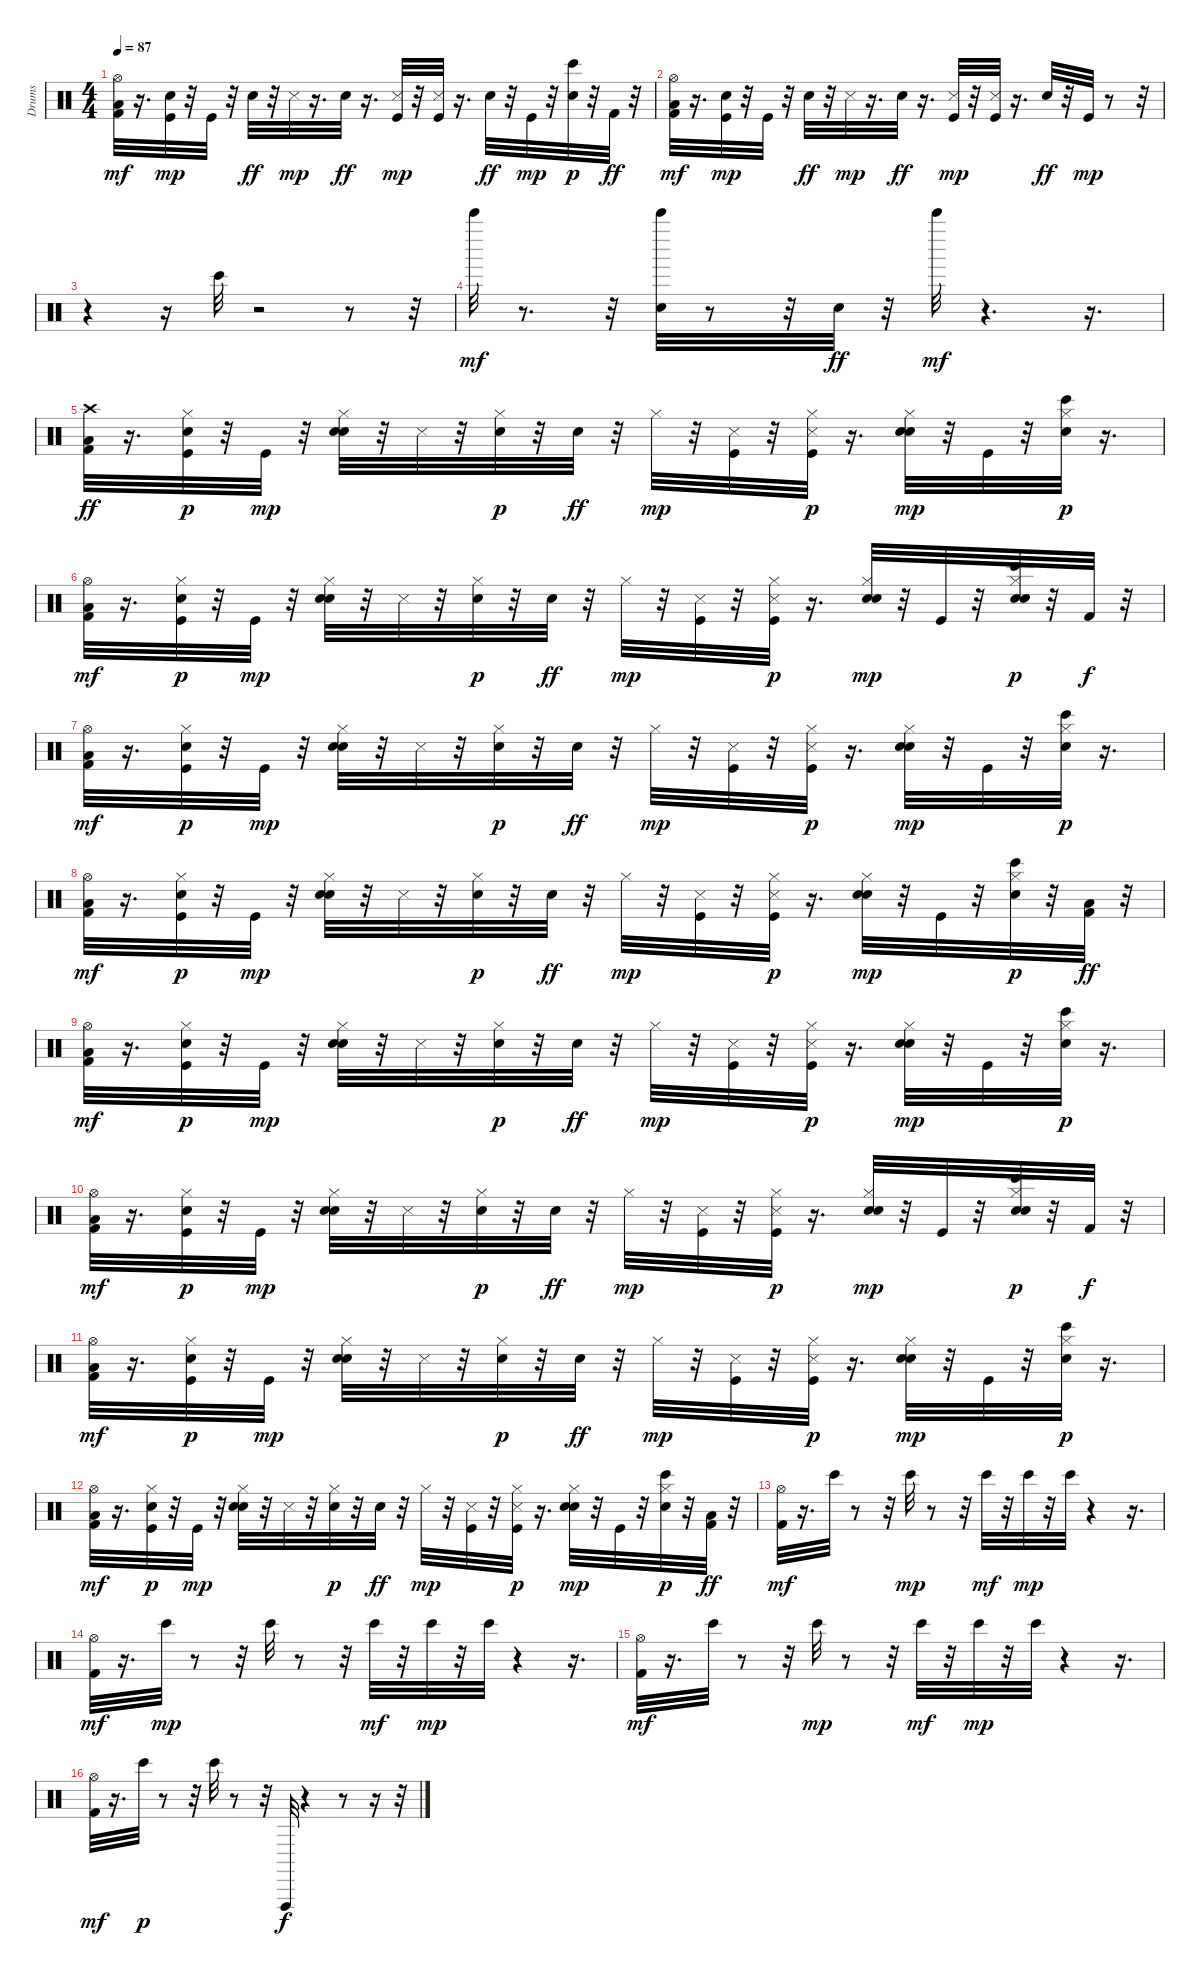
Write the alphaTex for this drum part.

\track ("Drums     " "Drums     ") {instrument percussion}
\staff {score}
\articulation defaults
\ts (4 4)
\tempo 87
\clef neutral
\ks c
("Kick (hit) 2" "Low Floor Tom (hit)" "Hi-Hat (open)").32{dy mf} r.16{d} ("Kick (hit)" "Snare (hit) 2").32{dy mp} r.32 "Kick (hit)".32 r.32 "Hand Clap (hit)".32{dy ff} r.32 "Snare (side stick) 3".32{dy mp} r.16{d} "Hand Clap (hit)".32{dy ff} r.16{d} ("Kick (hit)" "Snare (side stick) 3").32{dy mp} r.32 ("Kick (hit)" "Snare (side stick) 3").32 r.16{d} "Hand Clap (hit)".32{dy ff} r.32 "Kick (hit)".32{dy mp} r.32 ("Snare (hit) 2" "Bongo High (hit)").32{dy p} r.32 "Kick (hit) 2".32{dy ff} r.32 |
("Kick (hit) 2" "Low Floor Tom (hit)" "Hi-Hat (open)").32{dy mf} r.16{d} ("Kick (hit)" "Snare (hit) 2").32{dy mp} r.32 "Kick (hit)".32 r.32 "Hand Clap (hit)".32{dy ff} r.32 "Snare (side stick) 3".32{dy mp} r.16{d} "Hand Clap (hit)".32{dy ff} r.16{d} ("Kick (hit)" "Snare (side stick) 3").32{dy mp} r.32 ("Kick (hit)" "Snare (side stick) 3").32 r.16{d} "Hand Clap (hit)".32{dy ff} r.32 "Kick (hit)".32{dy mp} r.8 r.32 |
r.4 r.16 "Bongo High (hit)".32 r.2 r.8 r.32 |
"Bell Tree (hit)".32{dy mf} r.8{d} r.32 ("Hand Clap (hit)" "Bell Tree (hit)").32 r.8 r.32 "Hand Clap (hit)".32{dy ff} r.32 "Bell Tree (hit)".32{dy mf} r.4{d} r.16{d} |
("Kick (hit) 2" "Low Floor Tom (hit)" "Crash high (hit)").32{dy ff} r.16{d} ("Kick (hit)" "Snare (hit) 2" "Hi-Hat (closed)").32{dy p} r.32 "Kick (hit)".32{dy mp} r.32 ("Electric Snare (hit)" "Hand Clap (hit)" "Hi-Hat (closed)").32 r.32 "Snare (side stick) 3".32 r.32 ("Electric Snare (hit)" "Hi-Hat (closed)").32{dy p} r.32 "Hand Clap (hit)".32{dy ff} r.32 "Hi-Hat (closed)".32{dy mp} r.32 ("Kick (hit)" "Snare (side stick) 3").32 r.32 ("Kick (hit)" "Snare (side stick) 3" "Hi-Hat (closed)").32{dy p} r.16{d} ("Electric Snare (hit)" "Hand Clap (hit)" "Hi-Hat (closed)").32{dy mp} r.32 "Kick (hit)".32 r.32 ("Electric Snare (hit)" "Hi-Hat (closed)" "Bongo High (hit)").32{dy p} r.16{d} |
("Kick (hit) 2" "Low Floor Tom (hit)" "Hi-Hat (open)").32{dy mf} r.16{d} ("Kick (hit)" "Snare (hit) 2" "Hi-Hat (closed)").32{dy p} r.32 "Kick (hit)".32{dy mp} r.32 ("Electric Snare (hit)" "Hand Clap (hit)" "Hi-Hat (closed)").32 r.32 "Snare (side stick) 3".32 r.32 ("Electric Snare (hit)" "Hi-Hat (closed)").32{dy p} r.32 "Hand Clap (hit)".32{dy ff} r.32 "Hi-Hat (closed)".32{dy mp} r.32 ("Kick (hit)" "Snare (side stick) 3").32 r.32 ("Kick (hit)" "Snare (side stick) 3" "Hi-Hat (closed)").32{dy p} r.16{d} ("Electric Snare (hit)" "Hand Clap (hit)" "Hi-Hat (closed)").32{dy mp} r.32 "Kick (hit)".32 r.32 ("Snare (hit) 2" "Electric Snare (hit)" "Hi-Hat (closed)" "Bongo High (hit)").32{dy p} r.32 "Kick (hit) 2".32{dy f} r.32 |
("Kick (hit) 2" "Low Floor Tom (hit)" "Hi-Hat (open)").32{dy mf} r.16{d} ("Kick (hit)" "Snare (hit) 2" "Hi-Hat (closed)").32{dy p} r.32 "Kick (hit)".32{dy mp} r.32 ("Electric Snare (hit)" "Hand Clap (hit)" "Hi-Hat (closed)").32 r.32 "Snare (side stick) 3".32 r.32 ("Electric Snare (hit)" "Hi-Hat (closed)").32{dy p} r.32 "Hand Clap (hit)".32{dy ff} r.32 "Hi-Hat (closed)".32{dy mp} r.32 ("Kick (hit)" "Snare (side stick) 3").32 r.32 ("Kick (hit)" "Snare (side stick) 3" "Hi-Hat (closed)").32{dy p} r.16{d} ("Electric Snare (hit)" "Hand Clap (hit)" "Hi-Hat (closed)").32{dy mp} r.32 "Kick (hit)".32 r.32 ("Electric Snare (hit)" "Hi-Hat (closed)" "Bongo High (hit)").32{dy p} r.16{d} |
("Kick (hit) 2" "Low Floor Tom (hit)" "Hi-Hat (open)").32{dy mf} r.16{d} ("Kick (hit)" "Snare (hit) 2" "Hi-Hat (closed)").32{dy p} r.32 "Kick (hit)".32{dy mp} r.32 ("Electric Snare (hit)" "Hand Clap (hit)" "Hi-Hat (closed)").32 r.32 "Snare (side stick) 3".32 r.32 ("Electric Snare (hit)" "Hi-Hat (closed)").32{dy p} r.32 "Hand Clap (hit)".32{dy ff} r.32 "Hi-Hat (closed)".32{dy mp} r.32 ("Kick (hit)" "Snare (side stick) 3").32 r.32 ("Kick (hit)" "Snare (side stick) 3" "Hi-Hat (closed)").32{dy p} r.16{d} ("Electric Snare (hit)" "Hand Clap (hit)" "Hi-Hat (closed)").32{dy mp} r.32 "Kick (hit)".32 r.32 ("Electric Snare (hit)" "Hi-Hat (closed)" "Bongo High (hit)").32{dy p} r.32 ("Kick (hit) 2" "Low Floor Tom (hit)").32{dy ff} r.32 |
("Kick (hit) 2" "Low Floor Tom (hit)" "Hi-Hat (open)").32{dy mf} r.16{d} ("Kick (hit)" "Snare (hit) 2" "Hi-Hat (closed)").32{dy p} r.32 "Kick (hit)".32{dy mp} r.32 ("Electric Snare (hit)" "Hand Clap (hit)" "Hi-Hat (closed)").32 r.32 "Snare (side stick) 3".32 r.32 ("Electric Snare (hit)" "Hi-Hat (closed)").32{dy p} r.32 "Hand Clap (hit)".32{dy ff} r.32 "Hi-Hat (closed)".32{dy mp} r.32 ("Kick (hit)" "Snare (side stick) 3").32 r.32 ("Kick (hit)" "Snare (side stick) 3" "Hi-Hat (closed)").32{dy p} r.16{d} ("Electric Snare (hit)" "Hand Clap (hit)" "Hi-Hat (closed)").32{dy mp} r.32 "Kick (hit)".32 r.32 ("Electric Snare (hit)" "Hi-Hat (closed)" "Bongo High (hit)").32{dy p} r.16{d} |
("Kick (hit) 2" "Low Floor Tom (hit)" "Hi-Hat (open)").32{dy mf} r.16{d} ("Kick (hit)" "Snare (hit) 2" "Hi-Hat (closed)").32{dy p} r.32 "Kick (hit)".32{dy mp} r.32 ("Electric Snare (hit)" "Hand Clap (hit)" "Hi-Hat (closed)").32 r.32 "Snare (side stick) 3".32 r.32 ("Electric Snare (hit)" "Hi-Hat (closed)").32{dy p} r.32 "Hand Clap (hit)".32{dy ff} r.32 "Hi-Hat (closed)".32{dy mp} r.32 ("Kick (hit)" "Snare (side stick) 3").32 r.32 ("Kick (hit)" "Snare (side stick) 3" "Hi-Hat (closed)").32{dy p} r.16{d} ("Electric Snare (hit)" "Hand Clap (hit)" "Hi-Hat (closed)").32{dy mp} r.32 "Kick (hit)".32 r.32 ("Snare (hit) 2" "Electric Snare (hit)" "Hi-Hat (closed)" "Bongo High (hit)").32{dy p} r.32 "Kick (hit) 2".32{dy f} r.32 |
("Kick (hit) 2" "Low Floor Tom (hit)" "Hi-Hat (open)").32{dy mf} r.16{d} ("Kick (hit)" "Snare (hit) 2" "Hi-Hat (closed)").32{dy p} r.32 "Kick (hit)".32{dy mp} r.32 ("Electric Snare (hit)" "Hand Clap (hit)" "Hi-Hat (closed)").32 r.32 "Snare (side stick) 3".32 r.32 ("Electric Snare (hit)" "Hi-Hat (closed)").32{dy p} r.32 "Hand Clap (hit)".32{dy ff} r.32 "Hi-Hat (closed)".32{dy mp} r.32 ("Kick (hit)" "Snare (side stick) 3").32 r.32 ("Kick (hit)" "Snare (side stick) 3" "Hi-Hat (closed)").32{dy p} r.16{d} ("Electric Snare (hit)" "Hand Clap (hit)" "Hi-Hat (closed)").32{dy mp} r.32 "Kick (hit)".32 r.32 ("Electric Snare (hit)" "Hi-Hat (closed)" "Bongo High (hit)").32{dy p} r.16{d} |
("Kick (hit) 2" "Low Floor Tom (hit)" "Hi-Hat (open)").32{dy mf} r.16{d} ("Kick (hit)" "Snare (hit) 2" "Hi-Hat (closed)").32{dy p} r.32 "Kick (hit)".32{dy mp} r.32 ("Electric Snare (hit)" "Hand Clap (hit)" "Hi-Hat (closed)").32 r.32 "Snare (side stick) 3".32 r.32 ("Electric Snare (hit)" "Hi-Hat (closed)").32{dy p} r.32 "Hand Clap (hit)".32{dy ff} r.32 "Hi-Hat (closed)".32{dy mp} r.32 ("Kick (hit)" "Snare (side stick) 3").32 r.32 ("Kick (hit)" "Snare (side stick) 3" "Hi-Hat (closed)").32{dy p} r.16{d} ("Electric Snare (hit)" "Hand Clap (hit)" "Hi-Hat (closed)").32{dy mp} r.32 "Kick (hit)".32 r.32 ("Electric Snare (hit)" "Hi-Hat (closed)" "Bongo High (hit)").32{dy p} r.32 ("Kick (hit) 2" "Low Floor Tom (hit)").32{dy ff} r.32 |
("Kick (hit) 2" "Hi-Hat (open)").32{dy mf} r.16{d} "Bongo High (hit)".32 r.8 r.32 "Bongo High (hit)".32{dy mp} r.8 r.32 "Bongo High (hit)".32{dy mf} r.32 "Bongo High (hit)".32{dy mp} r.32 "Bongo High (hit)".32 r.4 r.16{d} |
("Kick (hit) 2" "Hi-Hat (open)").32{dy mf} r.16{d} "Bongo High (hit)".32{dy mp} r.8 r.32 "Bongo High (hit)".32 r.8 r.32 "Bongo High (hit)".32{dy mf} r.32 "Bongo High (hit)".32{dy mp} r.32 "Bongo High (hit)".32 r.4 r.16{d} |
("Kick (hit) 2" "Hi-Hat (open)").32{dy mf} r.16{d} "Bongo High (hit)".32 r.8 r.32 "Bongo High (hit)".32{dy mp} r.8 r.32 "Bongo High (hit)".32{dy mf} r.32 "Bongo High (hit)".32{dy mp} r.32 "Bongo High (hit)".32 r.4 r.16{d} |
("Kick (hit) 2" "Hi-Hat (open)").32{dy mf} r.16{d} "Bongo High (hit)".32{dy p} r.8 r.32 "Bongo High (hit)".32 r.8 r.32 "Vibraslap (hit)".32{dy f} r.4 r.8 r.16 r.32
